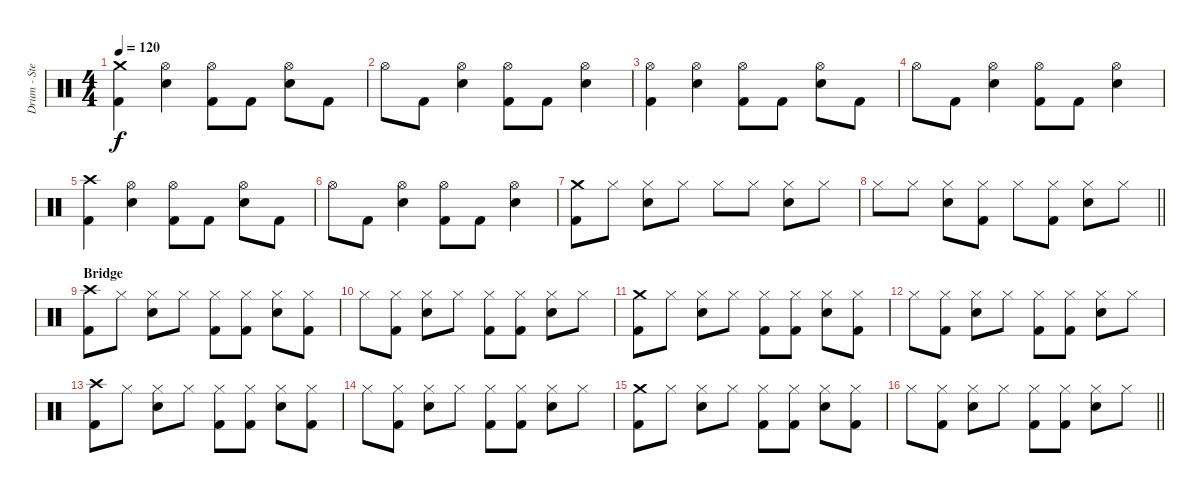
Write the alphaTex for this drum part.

\track ("Drum - Stevie Morley Item" "Drum - Ste") {instrument percussion}
\staff {score}
\articulation defaults
\ts (4 4)
\tempo 120
\clef neutral
\ks c
("Crash medium (hit)" "Kick (hit) 2").4{dy f} ("Hi-Hat (open)" "Snare (hit) 2").4 ("Hi-Hat (open)" "Kick (hit) 2").8 "Kick (hit) 2".8 ("Hi-Hat (open)" "Snare (hit) 2").8 "Kick (hit) 2".8 |
"Hi-Hat (open)".8 "Kick (hit) 2".8 ("Hi-Hat (open)" "Snare (hit) 2").4 ("Hi-Hat (open)" "Kick (hit) 2").8 "Kick (hit) 2".8 ("Hi-Hat (open)" "Snare (hit) 2").4 |
("Hi-Hat (open)" "Kick (hit) 2").4 ("Hi-Hat (open)" "Snare (hit) 2").4 ("Hi-Hat (open)" "Kick (hit) 2").8 "Kick (hit) 2".8 ("Hi-Hat (open)" "Snare (hit) 2").8 "Kick (hit) 2".8 |
"Hi-Hat (open)".8 "Kick (hit) 2".8 ("Hi-Hat (open)" "Snare (hit) 2").4 ("Hi-Hat (open)" "Kick (hit) 2").8 "Kick (hit) 2".8 ("Hi-Hat (open)" "Snare (hit) 2").4 |
("Crash high (hit)" "Kick (hit) 2").4 ("Hi-Hat (open)" "Snare (hit) 2").4 ("Hi-Hat (open)" "Kick (hit) 2").8 "Kick (hit) 2".8 ("Hi-Hat (open)" "Snare (hit) 2").8 "Kick (hit) 2".8 |
"Hi-Hat (open)".8 "Kick (hit) 2".8 ("Hi-Hat (open)" "Snare (hit) 2").4 ("Hi-Hat (open)" "Kick (hit) 2").8 "Kick (hit) 2".8 ("Hi-Hat (open)" "Snare (hit) 2").4 |
("Crash medium (hit)" "Kick (hit) 2").8 "Hi-Hat (closed)".8 ("Hi-Hat (closed)" "Snare (hit) 2").8 "Hi-Hat (closed)".8 "Hi-Hat (closed)".8 "Hi-Hat (closed)".8 ("Hi-Hat (closed)" "Snare (hit) 2").8 "Hi-Hat (closed)".8 |
\barLineRight lightlight "Hi-Hat (closed)".8 "Hi-Hat (closed)".8
("Hi-Hat (closed)" "Snare (hit) 2").8 ("Hi-Hat (closed)" "Kick (hit) 2").8 "Hi-Hat (closed)".8 ("Hi-Hat (closed)" "Kick (hit) 2").8 ("Hi-Hat (closed)" "Snare (hit) 2").8 "Hi-Hat (closed)".8 |
\section ("" "Bridge")
("Crash high (hit)" "Kick (hit) 2").8 "Hi-Hat (closed)".8 ("Hi-Hat (closed)" "Snare (hit) 2").8 "Hi-Hat (closed)".8 ("Hi-Hat (closed)" "Kick (hit) 2").8 ("Hi-Hat (closed)" "Kick (hit) 2").8 ("Hi-Hat (closed)" "Snare (hit) 2").8 ("Hi-Hat (closed)" "Kick (hit) 2").8 |
"Hi-Hat (closed)".8 ("Hi-Hat (closed)" "Kick (hit) 2").8 ("Hi-Hat (closed)" "Snare (hit) 2").8 "Hi-Hat (closed)".8 ("Hi-Hat (closed)" "Kick (hit) 2").8 ("Hi-Hat (closed)" "Kick (hit) 2").8 ("Hi-Hat (closed)" "Snare (hit) 2").8 "Hi-Hat (closed)".8 |
("Crash medium (hit)" "Kick (hit) 2").8 "Hi-Hat (closed)".8 ("Hi-Hat (closed)" "Snare (hit) 2").8 "Hi-Hat (closed)".8 ("Hi-Hat (closed)" "Kick (hit) 2").8 ("Hi-Hat (closed)" "Kick (hit) 2").8 ("Hi-Hat (closed)" "Snare (hit) 2").8 ("Hi-Hat (closed)" "Kick (hit) 2").8 |
"Hi-Hat (closed)".8 ("Hi-Hat (closed)" "Kick (hit) 2").8 ("Hi-Hat (closed)" "Snare (hit) 2").8 "Hi-Hat (closed)".8 ("Hi-Hat (closed)" "Kick (hit) 2").8 ("Hi-Hat (closed)" "Kick (hit) 2").8 ("Hi-Hat (closed)" "Snare (hit) 2").8 "Hi-Hat (closed)".8 |
("Crash high (hit)" "Kick (hit) 2").8 "Hi-Hat (closed)".8 ("Hi-Hat (closed)" "Snare (hit) 2").8 "Hi-Hat (closed)".8 ("Hi-Hat (closed)" "Kick (hit) 2").8 ("Hi-Hat (closed)" "Kick (hit) 2").8 ("Hi-Hat (closed)" "Snare (hit) 2").8 ("Hi-Hat (closed)" "Kick (hit) 2").8 |
"Hi-Hat (closed)".8 ("Hi-Hat (closed)" "Kick (hit) 2").8 ("Hi-Hat (closed)" "Snare (hit) 2").8 "Hi-Hat (closed)".8 ("Hi-Hat (closed)" "Kick (hit) 2").8 ("Hi-Hat (closed)" "Kick (hit) 2").8 ("Hi-Hat (closed)" "Snare (hit) 2").8 "Hi-Hat (closed)".8 |
("Crash medium (hit)" "Kick (hit) 2").8 "Hi-Hat (closed)".8 ("Hi-Hat (closed)" "Snare (hit) 2").8 "Hi-Hat (closed)".8 ("Hi-Hat (closed)" "Kick (hit) 2").8 ("Hi-Hat (closed)" "Kick (hit) 2").8 ("Hi-Hat (closed)" "Snare (hit) 2").8 ("Hi-Hat (closed)" "Kick (hit) 2").8 |
\barLineRight lightlight "Hi-Hat (closed)".8
("Hi-Hat (closed)" "Kick (hit) 2").8 ("Hi-Hat (closed)" "Snare (hit) 2").8 "Hi-Hat (closed)".8 ("Hi-Hat (closed)" "Kick (hit) 2").8 ("Hi-Hat (closed)" "Kick (hit) 2").8 ("Hi-Hat (closed)" "Snare (hit) 2").8 "Hi-Hat (closed)".8
